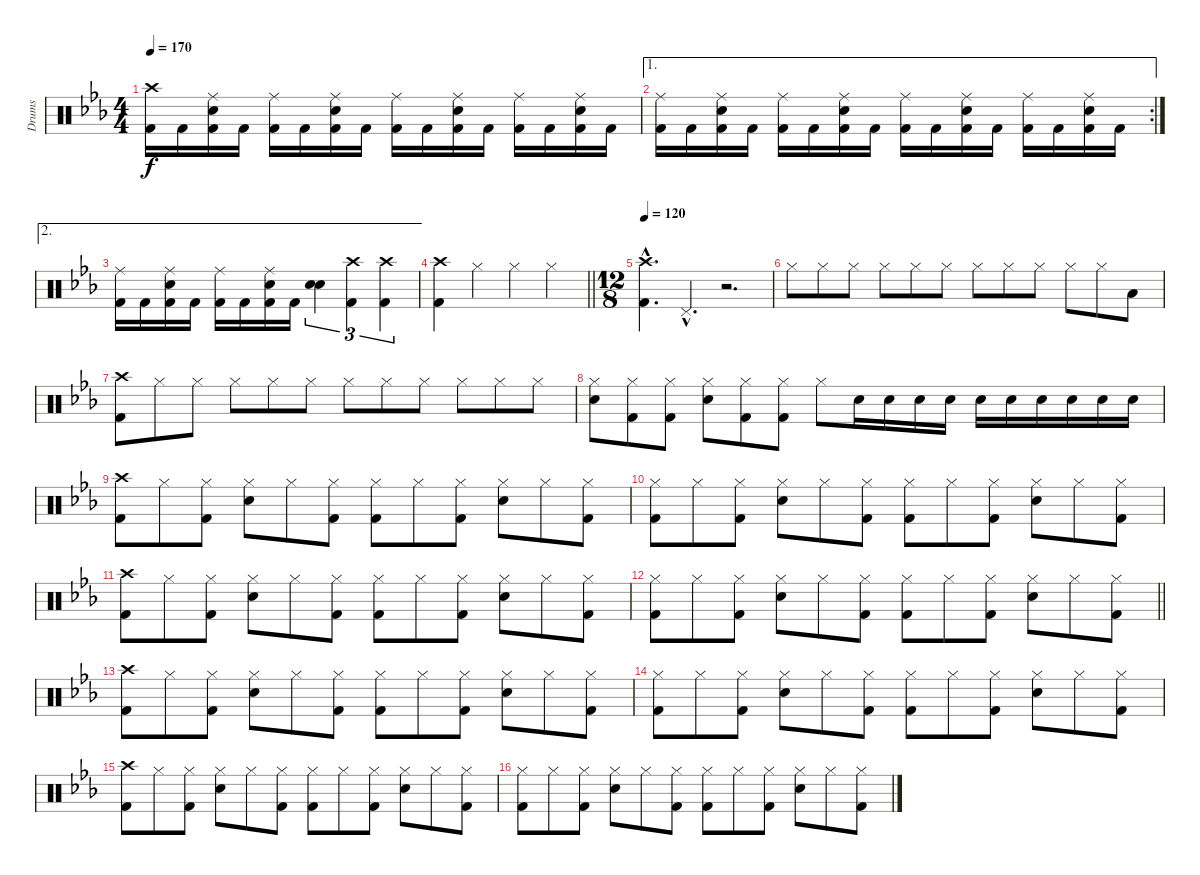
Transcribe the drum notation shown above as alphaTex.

\track ("Drums" "Drums") {instrument percussion}
\staff {score}
\articulation defaults
\ts (4 4)
\tempo 170
\clef neutral
\ks eb
("Crash high (hit)" "Kick (hit) 2").16{dy f} "Kick (hit) 2".16 ("Ride (middle)" "Snare (hit) 2" "Kick (hit) 2").16 "Kick (hit) 2".16 ("Ride (middle)" "Kick (hit) 2").16 "Kick (hit) 2".16 ("Ride (middle)" "Snare (hit) 2" "Kick (hit) 2").16 "Kick (hit) 2".16 ("Ride (middle)" "Kick (hit) 2").16 "Kick (hit) 2".16 ("Ride (middle)" "Snare (hit) 2" "Kick (hit) 2").16 "Kick (hit) 2".16 ("Ride (middle)" "Kick (hit) 2").16 "Kick (hit) 2".16 ("Ride (middle)" "Snare (hit) 2" "Kick (hit) 2").16 "Kick (hit) 2".16 |
\ae 1
\rc 2
("Ride (middle)" "Kick (hit) 2").16 "Kick (hit) 2".16 ("Ride (middle)" "Snare (hit) 2" "Kick (hit) 2").16 "Kick (hit) 2".16 ("Ride (middle)" "Kick (hit) 2").16 "Kick (hit) 2".16 ("Ride (middle)" "Snare (hit) 2" "Kick (hit) 2").16 "Kick (hit) 2".16 ("Ride (middle)" "Kick (hit) 2").16 "Kick (hit) 2".16 ("Ride (middle)" "Snare (hit) 2" "Kick (hit) 2").16 "Kick (hit) 2".16 ("Ride (middle)" "Kick (hit) 2").16 "Kick (hit) 2".16 ("Ride (middle)" "Snare (hit) 2" "Kick (hit) 2").16 "Kick (hit) 2".16 |
\ae 2
("Ride (middle)" "Kick (hit) 2").16 "Kick (hit) 2".16 ("Ride (middle)" "Snare (hit) 2" "Kick (hit) 2").16 "Kick (hit) 2".16 ("Ride (middle)" "Kick (hit) 2").16 "Kick (hit) 2".16 ("Ride (middle)" "Snare (hit) 2" "Kick (hit) 2").16 "Kick (hit) 2".16 ("Snare (hit) 2" "Snare (hit) 2").4{tu (3 2)} ("Crash high (hit)" "Kick (hit) 2").4{tu (3 2)} ("Crash high (hit)" "Kick (hit) 2").4{tu (3 2)} |
\barLineRight lightlight
("Crash high (hit)" "Kick (hit) 2").4 "Hi-Hat (closed)".4 "Hi-Hat (closed)".4 "Hi-Hat (closed)".4 |
\ts (12 8)
\tempo 120
("Crash high (hit)"{hac} "Kick (hit) 2"{hac}).4{d} "Pedal Hi-Hat (hit)"{hac}.4{d} r.2{d} |
"Hi-Hat (closed)".8 "Hi-Hat (closed)".8 "Hi-Hat (closed)".8 "Hi-Hat (closed)".8 "Hi-Hat (closed)".8 "Hi-Hat (closed)".8 "Hi-Hat (closed)".8 "Hi-Hat (closed)".8 "Hi-Hat (closed)".8 "Hi-Hat (closed)".8 "Hi-Hat (closed)".8 "Low Floor Tom (hit)".8 |
("Crash high (hit)" "Kick (hit) 2").8 "Hi-Hat (closed)".8 "Hi-Hat (closed)".8 "Hi-Hat (closed)".8 "Hi-Hat (closed)".8 "Hi-Hat (closed)".8 "Hi-Hat (closed)".8 "Hi-Hat (closed)".8 "Hi-Hat (closed)".8 "Hi-Hat (closed)".8 "Hi-Hat (closed)".8 "Hi-Hat (closed)".8 |
("Hi-Hat (closed)" "Snare (hit) 2").8 ("Hi-Hat (closed)" "Kick (hit) 2").8 ("Hi-Hat (closed)" "Kick (hit) 2").8 ("Hi-Hat (closed)" "Snare (hit) 2").8 ("Hi-Hat (closed)" "Kick (hit) 2").8 ("Hi-Hat (closed)" "Kick (hit) 2").8 "Hi-Hat (closed)".8 "Snare (hit) 2".16 "Snare (hit) 2".16 "Snare (hit) 2".16 "Snare (hit) 2".16 "Snare (hit) 2".16 "Snare (hit) 2".16 "Snare (hit) 2".16 "Snare (hit) 2".16 "Snare (hit) 2".16 "Snare (hit) 2".16 |
("Crash high (hit)" "Kick (hit) 2").8 "Hi-Hat (closed)".8 ("Hi-Hat (closed)" "Kick (hit) 2").8 ("Hi-Hat (closed)" "Snare (hit) 2").8 "Hi-Hat (closed)".8 ("Hi-Hat (closed)" "Kick (hit) 2").8 ("Hi-Hat (closed)" "Kick (hit) 2").8 "Hi-Hat (closed)".8 ("Hi-Hat (closed)" "Kick (hit) 2").8 ("Hi-Hat (closed)" "Snare (hit) 2").8 "Hi-Hat (closed)".8 ("Hi-Hat (closed)" "Kick (hit) 2").8 |
("Hi-Hat (closed)" "Kick (hit) 2").8 "Hi-Hat (closed)".8 ("Hi-Hat (closed)" "Kick (hit) 2").8 ("Hi-Hat (closed)" "Snare (hit) 2").8 "Hi-Hat (closed)".8 ("Hi-Hat (closed)" "Kick (hit) 2").8 ("Hi-Hat (closed)" "Kick (hit) 2").8 "Hi-Hat (closed)".8 ("Hi-Hat (closed)" "Kick (hit) 2").8 ("Hi-Hat (closed)" "Snare (hit) 2").8 "Hi-Hat (closed)".8 ("Hi-Hat (closed)" "Kick (hit) 2").8 |
("Crash high (hit)" "Kick (hit) 2").8 "Hi-Hat (closed)".8 ("Hi-Hat (closed)" "Kick (hit) 2").8 ("Hi-Hat (closed)" "Snare (hit) 2").8 "Hi-Hat (closed)".8 ("Hi-Hat (closed)" "Kick (hit) 2").8 ("Hi-Hat (closed)" "Kick (hit) 2").8 "Hi-Hat (closed)".8 ("Hi-Hat (closed)" "Kick (hit) 2").8 ("Hi-Hat (closed)" "Snare (hit) 2").8 "Hi-Hat (closed)".8 ("Hi-Hat (closed)" "Kick (hit) 2").8 |
\barLineRight lightlight
("Hi-Hat (closed)" "Kick (hit) 2").8 "Hi-Hat (closed)".8 ("Hi-Hat (closed)" "Kick (hit) 2").8 ("Hi-Hat (closed)" "Snare (hit) 2").8 "Hi-Hat (closed)".8 ("Hi-Hat (closed)" "Kick (hit) 2").8 ("Hi-Hat (closed)" "Kick (hit) 2").8 "Hi-Hat (closed)".8 ("Hi-Hat (closed)" "Kick (hit) 2").8 ("Hi-Hat (closed)" "Snare (hit) 2").8 "Hi-Hat (closed)".8 ("Hi-Hat (closed)" "Kick (hit) 2").8 |
("Crash high (hit)" "Kick (hit) 2").8 "Hi-Hat (closed)".8 ("Hi-Hat (closed)" "Kick (hit) 2").8 ("Hi-Hat (closed)" "Snare (hit) 2").8 "Hi-Hat (closed)".8 ("Hi-Hat (closed)" "Kick (hit) 2").8 ("Hi-Hat (closed)" "Kick (hit) 2").8 "Hi-Hat (closed)".8 ("Hi-Hat (closed)" "Kick (hit) 2").8 ("Hi-Hat (closed)" "Snare (hit) 2").8 "Hi-Hat (closed)".8 ("Hi-Hat (closed)" "Kick (hit) 2").8 |
("Hi-Hat (closed)" "Kick (hit) 2").8 "Hi-Hat (closed)".8 ("Hi-Hat (closed)" "Kick (hit) 2").8 ("Hi-Hat (closed)" "Snare (hit) 2").8 "Hi-Hat (closed)".8 ("Hi-Hat (closed)" "Kick (hit) 2").8 ("Hi-Hat (closed)" "Kick (hit) 2").8 "Hi-Hat (closed)".8 ("Hi-Hat (closed)" "Kick (hit) 2").8 ("Hi-Hat (closed)" "Snare (hit) 2").8 "Hi-Hat (closed)".8 ("Hi-Hat (closed)" "Kick (hit) 2").8 |
("Crash high (hit)" "Kick (hit) 2").8 "Hi-Hat (closed)".8 ("Hi-Hat (closed)" "Kick (hit) 2").8 ("Hi-Hat (closed)" "Snare (hit) 2").8 "Hi-Hat (closed)".8 ("Hi-Hat (closed)" "Kick (hit) 2").8 ("Hi-Hat (closed)" "Kick (hit) 2").8 "Hi-Hat (closed)".8 ("Hi-Hat (closed)" "Kick (hit) 2").8 ("Hi-Hat (closed)" "Snare (hit) 2").8 "Hi-Hat (closed)".8 ("Hi-Hat (closed)" "Kick (hit) 2").8 |
("Hi-Hat (closed)" "Kick (hit) 2").8 "Hi-Hat (closed)".8 ("Hi-Hat (closed)" "Kick (hit) 2").8 ("Hi-Hat (closed)" "Snare (hit) 2").8 "Hi-Hat (closed)".8 ("Hi-Hat (closed)" "Kick (hit) 2").8 ("Hi-Hat (closed)" "Kick (hit) 2").8 "Hi-Hat (closed)".8 ("Hi-Hat (closed)" "Kick (hit) 2").8 ("Hi-Hat (closed)" "Snare (hit) 2").8 "Hi-Hat (closed)".8 ("Hi-Hat (closed)" "Kick (hit) 2").8
